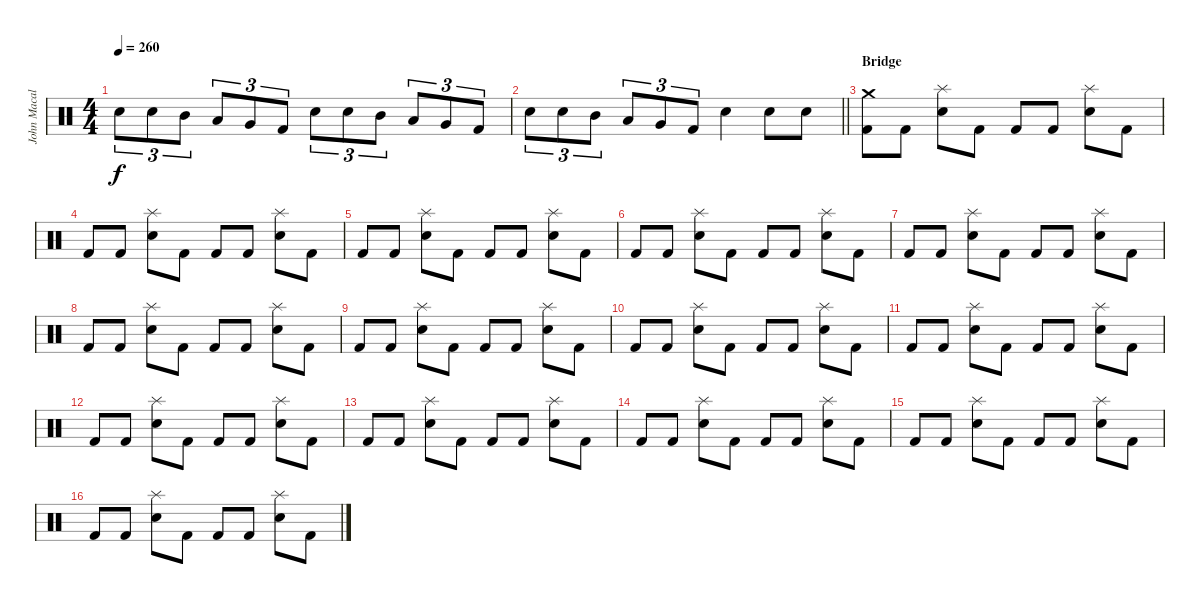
\track ("John Macaluso" "John Macal") {instrument percussion}
\staff {score}
\articulation defaults
\ts (4 4)
\tempo 260
\clef neutral
\ks c "Snare (hit) 2".8{tu (3 2) dy f} "Snare (hit) 2".8{tu (3 2)} "Mid Tom (hit)".8{tu (3 2)} "Low Tom (hit)".8{tu (3 2)} "Very Low Tom (hit)".8{tu (3 2)} "Kick (hit) 2".8{tu (3 2)} "Snare (hit) 2".8{tu (3 2)} "Snare (hit) 2".8{tu (3 2)} "Mid Tom (hit)".8{tu (3 2)} "Low Tom (hit)".8{tu (3 2)} "Very Low Tom (hit)".8{tu (3 2)} "Kick (hit) 2".8{tu (3 2)}
|
\barLineRight lightlight "Snare (hit) 2".8{tu (3 2)} "Snare (hit) 2".8{tu (3 2)} "Mid Tom (hit)".8{tu (3 2)} "Low Tom (hit)".8{tu (3 2)} "Very Low Tom (hit)".8{tu (3 2)} "Kick (hit) 2".8{tu (3 2)} "Snare (hit) 2".4 "Snare (hit) 2".8 "Snare (hit) 2".8
|
\section ("" "Bridge")
("Crash medium (hit)" "Kick (hit) 2").8 "Kick (hit) 2".8 ("Splash (hit)" "Snare (hit) 2").8 "Kick (hit) 2".8 "Kick (hit) 2".8 "Kick (hit) 2".8 ("Splash (hit)" "Snare (hit) 2").8 "Kick (hit) 2".8 |
"Kick (hit) 2".8 "Kick (hit) 2".8 ("Splash (hit)" "Snare (hit) 2").8 "Kick (hit) 2".8 "Kick (hit) 2".8 "Kick (hit) 2".8 ("Splash (hit)" "Snare (hit) 2").8 "Kick (hit) 2".8 |
"Kick (hit) 2".8 "Kick (hit) 2".8 ("Splash (hit)" "Snare (hit) 2").8 "Kick (hit) 2".8 "Kick (hit) 2".8 "Kick (hit) 2".8 ("Splash (hit)" "Snare (hit) 2").8 "Kick (hit) 2".8 |
"Kick (hit) 2".8 "Kick (hit) 2".8 ("Splash (hit)" "Snare (hit) 2").8 "Kick (hit) 2".8 "Kick (hit) 2".8 "Kick (hit) 2".8 ("Splash (hit)" "Snare (hit) 2").8 "Kick (hit) 2".8 |
"Kick (hit) 2".8 "Kick (hit) 2".8 ("Splash (hit)" "Snare (hit) 2").8 "Kick (hit) 2".8 "Kick (hit) 2".8 "Kick (hit) 2".8 ("Splash (hit)" "Snare (hit) 2").8 "Kick (hit) 2".8 |
"Kick (hit) 2".8 "Kick (hit) 2".8 ("Splash (hit)" "Snare (hit) 2").8 "Kick (hit) 2".8 "Kick (hit) 2".8 "Kick (hit) 2".8 ("Splash (hit)" "Snare (hit) 2").8 "Kick (hit) 2".8 |
"Kick (hit) 2".8 "Kick (hit) 2".8 ("Splash (hit)" "Snare (hit) 2").8 "Kick (hit) 2".8 "Kick (hit) 2".8 "Kick (hit) 2".8 ("Splash (hit)" "Snare (hit) 2").8 "Kick (hit) 2".8 |
"Kick (hit) 2".8 "Kick (hit) 2".8 ("Splash (hit)" "Snare (hit) 2").8 "Kick (hit) 2".8 "Kick (hit) 2".8 "Kick (hit) 2".8 ("Splash (hit)" "Snare (hit) 2").8 "Kick (hit) 2".8 |
"Kick (hit) 2".8 "Kick (hit) 2".8 ("Splash (hit)" "Snare (hit) 2").8 "Kick (hit) 2".8 "Kick (hit) 2".8 "Kick (hit) 2".8 ("Splash (hit)" "Snare (hit) 2").8 "Kick (hit) 2".8 |
"Kick (hit) 2".8 "Kick (hit) 2".8 ("Splash (hit)" "Snare (hit) 2").8 "Kick (hit) 2".8 "Kick (hit) 2".8 "Kick (hit) 2".8 ("Splash (hit)" "Snare (hit) 2").8 "Kick (hit) 2".8 |
"Kick (hit) 2".8 "Kick (hit) 2".8 ("Splash (hit)" "Snare (hit) 2").8 "Kick (hit) 2".8 "Kick (hit) 2".8 "Kick (hit) 2".8 ("Splash (hit)" "Snare (hit) 2").8 "Kick (hit) 2".8 |
"Kick (hit) 2".8 "Kick (hit) 2".8 ("Splash (hit)" "Snare (hit) 2").8 "Kick (hit) 2".8 "Kick (hit) 2".8 "Kick (hit) 2".8 ("Splash (hit)" "Snare (hit) 2").8 "Kick (hit) 2".8 |
"Kick (hit) 2".8 "Kick (hit) 2".8 ("Splash (hit)" "Snare (hit) 2").8 "Kick (hit) 2".8 "Kick (hit) 2".8 "Kick (hit) 2".8 ("Splash (hit)" "Snare (hit) 2").8 "Kick (hit) 2".8 |
"Kick (hit) 2".8 "Kick (hit) 2".8 ("Splash (hit)" "Snare (hit) 2").8 "Kick (hit) 2".8 "Kick (hit) 2".8 "Kick (hit) 2".8 ("Splash (hit)" "Snare (hit) 2").8 "Kick (hit) 2".8
